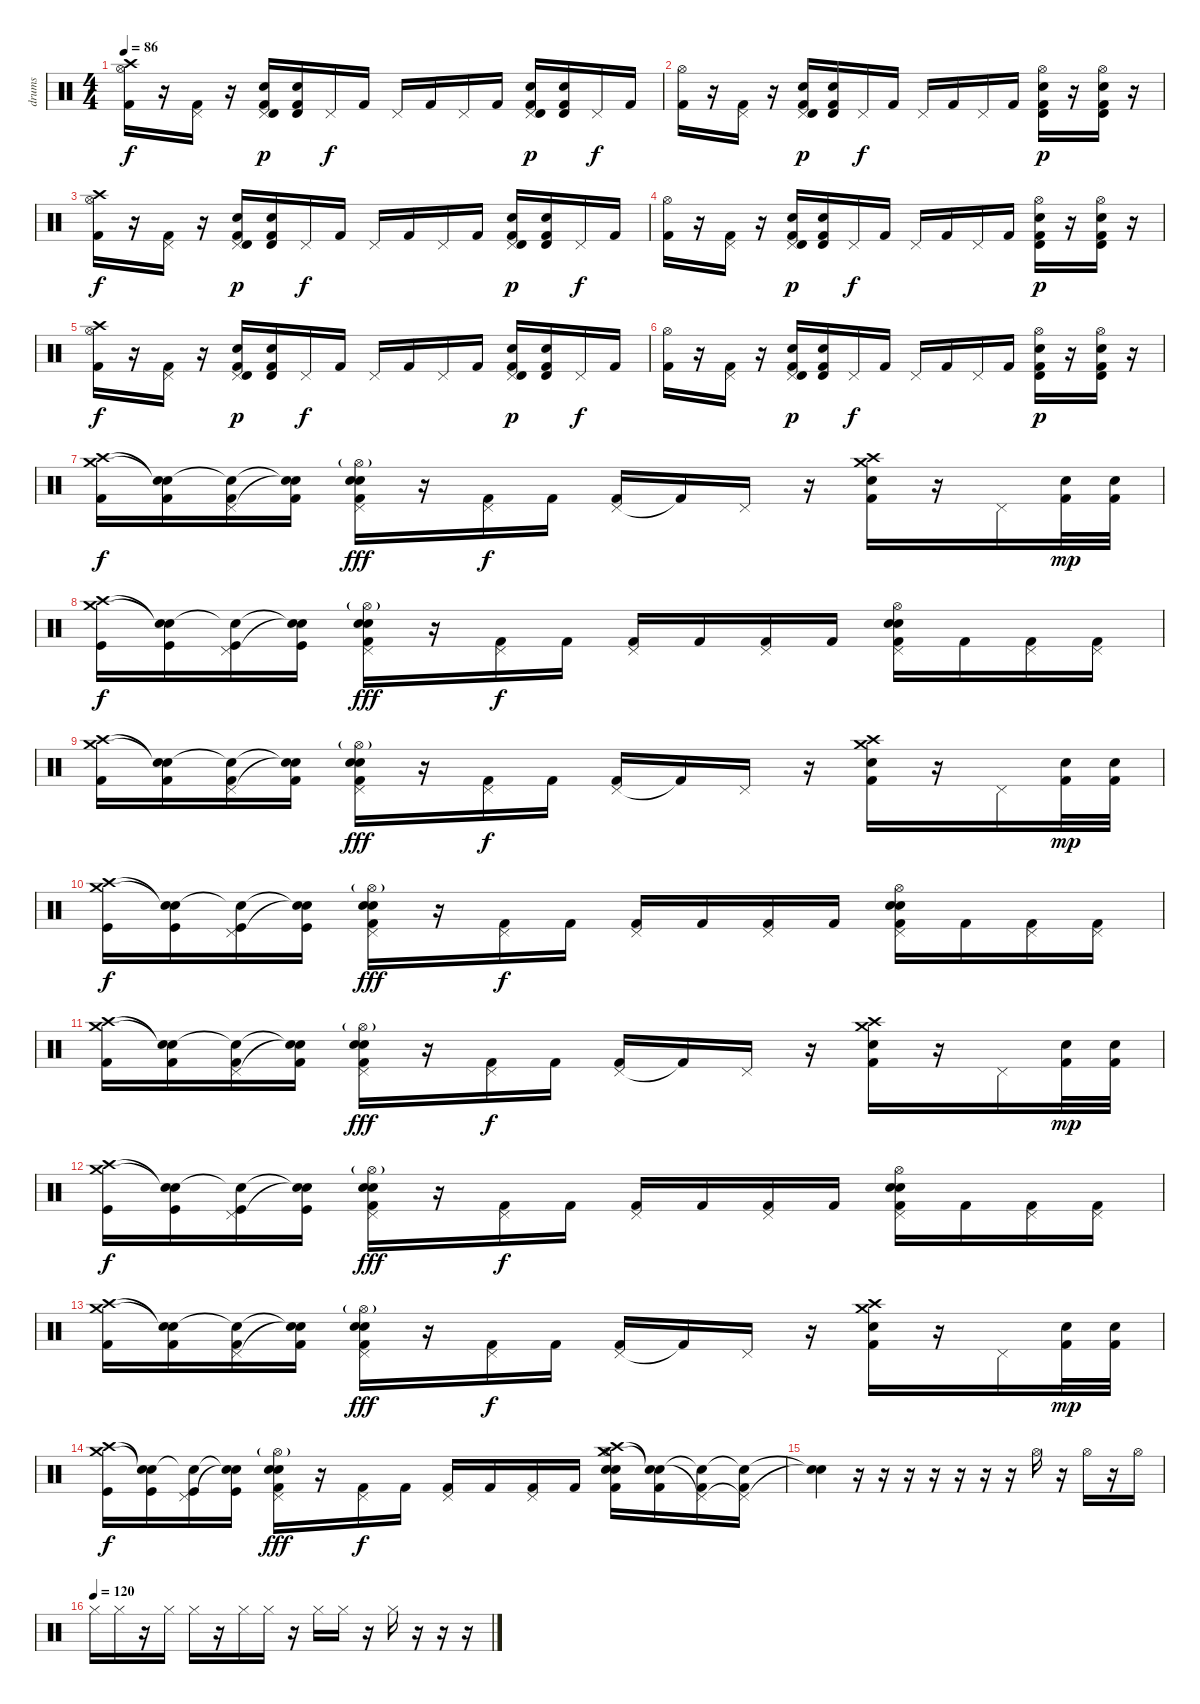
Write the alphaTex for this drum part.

\track ("drums" "drums") {instrument percussion}
\staff {score}
\articulation defaults
\ts (4 4)
\tempo 86
\clef neutral
\ks c
("Hi-Hat (open)" "Crash high (hit)" "Kick (hit) 2").16{dy f} r.16 ("Pedal Hi-Hat (hit)" "Kick (hit) 2").16 r.16 ("Pedal Hi-Hat (hit)" "Timbale high (hit)" "Electric Snare (hit)" "Kick (hit) 2").16{dy p} ("Timbale high (hit)" "Electric Snare (hit)" "Kick (hit) 2").16 "Pedal Hi-Hat (hit)".16{dy f} "Kick (hit) 2".16 "Pedal Hi-Hat (hit)".16 "Kick (hit) 2".16 "Pedal Hi-Hat (hit)".16 "Kick (hit) 2".16 ("Pedal Hi-Hat (hit)" "Timbale high (hit)" "Electric Snare (hit)" "Kick (hit) 2").16{dy p} ("Timbale high (hit)" "Electric Snare (hit)" "Kick (hit) 2").16 "Pedal Hi-Hat (hit)".16{dy f} "Kick (hit) 2".16 |
("Hi-Hat (open)" "Kick (hit) 2").16 r.16 ("Pedal Hi-Hat (hit)" "Kick (hit) 2").16 r.16 ("Pedal Hi-Hat (hit)" "Timbale high (hit)" "Electric Snare (hit)" "Kick (hit) 2").16{dy p} ("Timbale high (hit)" "Electric Snare (hit)" "Kick (hit) 2").16 "Pedal Hi-Hat (hit)".16{dy f} "Kick (hit) 2".16 "Pedal Hi-Hat (hit)".16 "Kick (hit) 2".16 "Pedal Hi-Hat (hit)".16 "Kick (hit) 2".16 ("Hi-Hat (open)" "Timbale high (hit)" "Electric Snare (hit)" "Kick (hit) 2").16{dy p} r.16 ("Hi-Hat (open)" "Timbale high (hit)" "Electric Snare (hit)" "Kick (hit) 2").16 r.16 |
("Hi-Hat (open)" "Crash high (hit)" "Kick (hit) 2").16{dy f} r.16 ("Pedal Hi-Hat (hit)" "Kick (hit) 2").16 r.16 ("Pedal Hi-Hat (hit)" "Timbale high (hit)" "Electric Snare (hit)" "Kick (hit) 2").16{dy p} ("Timbale high (hit)" "Electric Snare (hit)" "Kick (hit) 2").16 "Pedal Hi-Hat (hit)".16{dy f} "Kick (hit) 2".16 "Pedal Hi-Hat (hit)".16 "Kick (hit) 2".16 "Pedal Hi-Hat (hit)".16 "Kick (hit) 2".16 ("Pedal Hi-Hat (hit)" "Timbale high (hit)" "Electric Snare (hit)" "Kick (hit) 2").16{dy p} ("Timbale high (hit)" "Electric Snare (hit)" "Kick (hit) 2").16 "Pedal Hi-Hat (hit)".16{dy f} "Kick (hit) 2".16 |
("Hi-Hat (open)" "Kick (hit) 2").16 r.16 ("Pedal Hi-Hat (hit)" "Kick (hit) 2").16 r.16 ("Pedal Hi-Hat (hit)" "Timbale high (hit)" "Electric Snare (hit)" "Kick (hit) 2").16{dy p} ("Timbale high (hit)" "Electric Snare (hit)" "Kick (hit) 2").16 "Pedal Hi-Hat (hit)".16{dy f} "Kick (hit) 2".16 "Pedal Hi-Hat (hit)".16 "Kick (hit) 2".16 "Pedal Hi-Hat (hit)".16 "Kick (hit) 2".16 ("Hi-Hat (open)" "Timbale high (hit)" "Electric Snare (hit)" "Kick (hit) 2").16{dy p} r.16 ("Hi-Hat (open)" "Timbale high (hit)" "Electric Snare (hit)" "Kick (hit) 2").16 r.16 |
("Hi-Hat (open)" "Crash high (hit)" "Kick (hit) 2").16{dy f} r.16 ("Pedal Hi-Hat (hit)" "Kick (hit) 2").16 r.16 ("Pedal Hi-Hat (hit)" "Timbale high (hit)" "Electric Snare (hit)" "Kick (hit) 2").16{dy p} ("Timbale high (hit)" "Electric Snare (hit)" "Kick (hit) 2").16 "Pedal Hi-Hat (hit)".16{dy f} "Kick (hit) 2".16 "Pedal Hi-Hat (hit)".16 "Kick (hit) 2".16 "Pedal Hi-Hat (hit)".16 "Kick (hit) 2".16 ("Pedal Hi-Hat (hit)" "Timbale high (hit)" "Electric Snare (hit)" "Kick (hit) 2").16{dy p} ("Timbale high (hit)" "Electric Snare (hit)" "Kick (hit) 2").16 "Pedal Hi-Hat (hit)".16{dy f} "Kick (hit) 2".16 |
("Hi-Hat (open)" "Kick (hit) 2").16 r.16 ("Pedal Hi-Hat (hit)" "Kick (hit) 2").16 r.16 ("Pedal Hi-Hat (hit)" "Timbale high (hit)" "Electric Snare (hit)" "Kick (hit) 2").16{dy p} ("Timbale high (hit)" "Electric Snare (hit)" "Kick (hit) 2").16 "Pedal Hi-Hat (hit)".16{dy f} "Kick (hit) 2".16 "Pedal Hi-Hat (hit)".16 "Kick (hit) 2".16 "Pedal Hi-Hat (hit)".16 "Kick (hit) 2".16 ("Hi-Hat (open)" "Timbale high (hit)" "Electric Snare (hit)" "Kick (hit) 2").16{dy p} r.16 ("Hi-Hat (open)" "Timbale high (hit)" "Electric Snare (hit)" "Kick (hit) 2").16 r.16 |
("Crash high (hit)" "Crash medium (hit)" "Kick (hit) 2").16{dy f} ("Snare (hit)"{t} "Snare (hit)"{t} "Kick (hit) 2").16 ("Pedal Hi-Hat (hit)" "Snare (hit)"{t} "Kick (hit) 2").16 ("Snare (hit)"{t} "Snare (hit)"{t} "Kick (hit) 2").16 ("Pedal Hi-Hat (hit)" "Hi-Hat (open)"{g} "Electric Snare (hit)" "Electric Snare (hit)" "Kick (hit) 2").16{dy fff} r.16 ("Pedal Hi-Hat (hit)" "Kick (hit) 2").16{dy f} "Kick (hit) 2".16 ("Pedal Hi-Hat (hit)" "Kick (hit) 2").16 "Kick (hit) 2"{t}.16 "Pedal Hi-Hat (hit)".16 r.16 ("Crash high (hit)" "Crash medium (hit)" "Kick (hit) 2" "Electric Snare (hit)").16 r.16 "Pedal Hi-Hat (hit)".16 ("Kick (hit) 2" "Electric Snare (hit)").32{dy mp} ("Kick (hit) 2" "Electric Snare (hit)").32 |
("Crash high (hit)" "Crash medium (hit)" "Kick (hit)").16{dy f} ("Snare (hit)"{t} "Snare (hit)"{t} "Kick (hit)").16 ("Pedal Hi-Hat (hit)" "Snare (hit)"{t} "Kick (hit)").16 ("Snare (hit)"{t} "Snare (hit)"{t} "Kick (hit)").16 ("Pedal Hi-Hat (hit)" "Hi-Hat (open)"{g} "Electric Snare (hit)" "Electric Snare (hit)" "Kick (hit) 2").16{dy fff} r.16 ("Pedal Hi-Hat (hit)" "Kick (hit) 2").16{dy f} "Kick (hit) 2".16 ("Pedal Hi-Hat (hit)" "Kick (hit) 2").16 "Kick (hit) 2".16 ("Pedal Hi-Hat (hit)" "Kick (hit) 2").16 "Kick (hit) 2".16 ("Pedal Hi-Hat (hit)" "Hi-Hat (open)" "Electric Snare (hit)" "Electric Snare (hit)" "Kick (hit) 2").16 "Kick (hit) 2".16 ("Pedal Hi-Hat (hit)" "Kick (hit) 2").16 ("Pedal Hi-Hat (hit)" "Kick (hit) 2").16 |
("Crash high (hit)" "Crash medium (hit)" "Kick (hit) 2").16 ("Snare (hit)"{t} "Snare (hit)"{t} "Kick (hit) 2").16 ("Pedal Hi-Hat (hit)" "Snare (hit)"{t} "Kick (hit) 2").16 ("Snare (hit)"{t} "Snare (hit)"{t} "Kick (hit) 2").16 ("Pedal Hi-Hat (hit)" "Hi-Hat (open)"{g} "Electric Snare (hit)" "Electric Snare (hit)" "Kick (hit) 2").16{dy fff} r.16 ("Pedal Hi-Hat (hit)" "Kick (hit) 2").16{dy f} "Kick (hit) 2".16 ("Pedal Hi-Hat (hit)" "Kick (hit) 2").16 "Kick (hit) 2"{t}.16 "Pedal Hi-Hat (hit)".16 r.16 ("Crash high (hit)" "Crash medium (hit)" "Kick (hit) 2" "Electric Snare (hit)").16 r.16 "Pedal Hi-Hat (hit)".16 ("Kick (hit) 2" "Electric Snare (hit)").32{dy mp} ("Kick (hit) 2" "Electric Snare (hit)").32 |
("Crash high (hit)" "Crash medium (hit)" "Kick (hit)").16{dy f} ("Snare (hit)"{t} "Snare (hit)"{t} "Kick (hit)").16 ("Pedal Hi-Hat (hit)" "Snare (hit)"{t} "Kick (hit)").16 ("Snare (hit)"{t} "Snare (hit)"{t} "Kick (hit)").16 ("Pedal Hi-Hat (hit)" "Hi-Hat (open)"{g} "Electric Snare (hit)" "Electric Snare (hit)" "Kick (hit) 2").16{dy fff} r.16 ("Pedal Hi-Hat (hit)" "Kick (hit) 2").16{dy f} "Kick (hit) 2".16 ("Pedal Hi-Hat (hit)" "Kick (hit) 2").16 "Kick (hit) 2".16 ("Pedal Hi-Hat (hit)" "Kick (hit) 2").16 "Kick (hit) 2".16 ("Pedal Hi-Hat (hit)" "Hi-Hat (open)" "Electric Snare (hit)" "Electric Snare (hit)" "Kick (hit) 2").16 "Kick (hit) 2".16 ("Pedal Hi-Hat (hit)" "Kick (hit) 2").16 ("Pedal Hi-Hat (hit)" "Kick (hit) 2").16 |
("Crash high (hit)" "Crash medium (hit)" "Kick (hit) 2").16 ("Snare (hit)"{t} "Snare (hit)"{t} "Kick (hit) 2").16 ("Pedal Hi-Hat (hit)" "Snare (hit)"{t} "Kick (hit) 2").16 ("Snare (hit)"{t} "Snare (hit)"{t} "Kick (hit) 2").16 ("Pedal Hi-Hat (hit)" "Hi-Hat (open)"{g} "Electric Snare (hit)" "Electric Snare (hit)" "Kick (hit) 2").16{dy fff} r.16 ("Pedal Hi-Hat (hit)" "Kick (hit) 2").16{dy f} "Kick (hit) 2".16 ("Pedal Hi-Hat (hit)" "Kick (hit) 2").16 "Kick (hit) 2"{t}.16 "Pedal Hi-Hat (hit)".16 r.16 ("Crash high (hit)" "Crash medium (hit)" "Kick (hit) 2" "Electric Snare (hit)").16 r.16 "Pedal Hi-Hat (hit)".16 ("Kick (hit) 2" "Electric Snare (hit)").32{dy mp} ("Kick (hit) 2" "Electric Snare (hit)").32 |
("Crash high (hit)" "Crash medium (hit)" "Kick (hit)").16{dy f} ("Snare (hit)"{t} "Snare (hit)"{t} "Kick (hit)").16 ("Pedal Hi-Hat (hit)" "Snare (hit)"{t} "Kick (hit)").16 ("Snare (hit)"{t} "Snare (hit)"{t} "Kick (hit)").16 ("Pedal Hi-Hat (hit)" "Hi-Hat (open)"{g} "Electric Snare (hit)" "Electric Snare (hit)" "Kick (hit) 2").16{dy fff} r.16 ("Pedal Hi-Hat (hit)" "Kick (hit) 2").16{dy f} "Kick (hit) 2".16 ("Pedal Hi-Hat (hit)" "Kick (hit) 2").16 "Kick (hit) 2".16 ("Pedal Hi-Hat (hit)" "Kick (hit) 2").16 "Kick (hit) 2".16 ("Pedal Hi-Hat (hit)" "Hi-Hat (open)" "Electric Snare (hit)" "Electric Snare (hit)" "Kick (hit) 2").16 "Kick (hit) 2".16 ("Pedal Hi-Hat (hit)" "Kick (hit) 2").16 ("Pedal Hi-Hat (hit)" "Kick (hit) 2").16 |
("Crash high (hit)" "Crash medium (hit)" "Kick (hit) 2").16 ("Snare (hit)"{t} "Snare (hit)"{t} "Kick (hit) 2").16 ("Pedal Hi-Hat (hit)" "Snare (hit)"{t} "Kick (hit) 2").16 ("Snare (hit)"{t} "Snare (hit)"{t} "Kick (hit) 2").16 ("Pedal Hi-Hat (hit)" "Hi-Hat (open)"{g} "Electric Snare (hit)" "Electric Snare (hit)" "Kick (hit) 2").16{dy fff} r.16 ("Pedal Hi-Hat (hit)" "Kick (hit) 2").16{dy f} "Kick (hit) 2".16 ("Pedal Hi-Hat (hit)" "Kick (hit) 2").16 "Kick (hit) 2"{t}.16 "Pedal Hi-Hat (hit)".16 r.16 ("Crash high (hit)" "Crash medium (hit)" "Kick (hit) 2" "Electric Snare (hit)").16 r.16 "Pedal Hi-Hat (hit)".16 ("Kick (hit) 2" "Electric Snare (hit)").32{dy mp} ("Kick (hit) 2" "Electric Snare (hit)").32 |
("Crash high (hit)" "Crash medium (hit)" "Kick (hit)").16{dy f} ("Snare (hit)"{t} "Snare (hit)"{t} "Kick (hit)").16 ("Pedal Hi-Hat (hit)" "Snare (hit)"{t} "Kick (hit)").16 ("Snare (hit)"{t} "Snare (hit)"{t} "Kick (hit)").16 ("Pedal Hi-Hat (hit)" "Hi-Hat (open)"{g} "Electric Snare (hit)" "Electric Snare (hit)" "Kick (hit) 2").16{dy fff} r.16 ("Pedal Hi-Hat (hit)" "Kick (hit) 2").16{dy f} "Kick (hit) 2".16 ("Pedal Hi-Hat (hit)" "Kick (hit) 2").16 "Kick (hit) 2".16 ("Pedal Hi-Hat (hit)" "Kick (hit) 2").16 "Kick (hit) 2".16 ("Crash high (hit)" "Crash medium (hit)" "Hi-Hat (open)" "Electric Snare (hit)" "Electric Snare (hit)" "Kick (hit) 2").16 ("Snare (hit)"{t} "Snare (hit)"{t} "Kick (hit) 2").16 ("Pedal Hi-Hat (hit)"{t} "Snare (hit)"{t} "Kick (hit) 2").16 ("Pedal Hi-Hat (hit)"{t} "Snare (hit)"{t} "Kick (hit) 2").16 |
("Snare (hit)"{t} "Snare (hit)"{t}).4 r.16 r.16 r.16 r.16 r.16 r.16 r.16 "Hi-Hat (open)".16 r.16 "Hi-Hat (open)".16 r.16 "Hi-Hat (open)".16 |
\tempo (120)
"Hi-Hat (closed)".16 "Hi-Hat (closed)".16 r.16 "Hi-Hat (closed)".16 "Hi-Hat (closed)".16 r.16 "Hi-Hat (closed)".16 "Hi-Hat (closed)".16 r.16 "Hi-Hat (closed)".16 "Hi-Hat (closed)".16 r.16 "Hi-Hat (closed)".16 r.16 r.16 r.16
